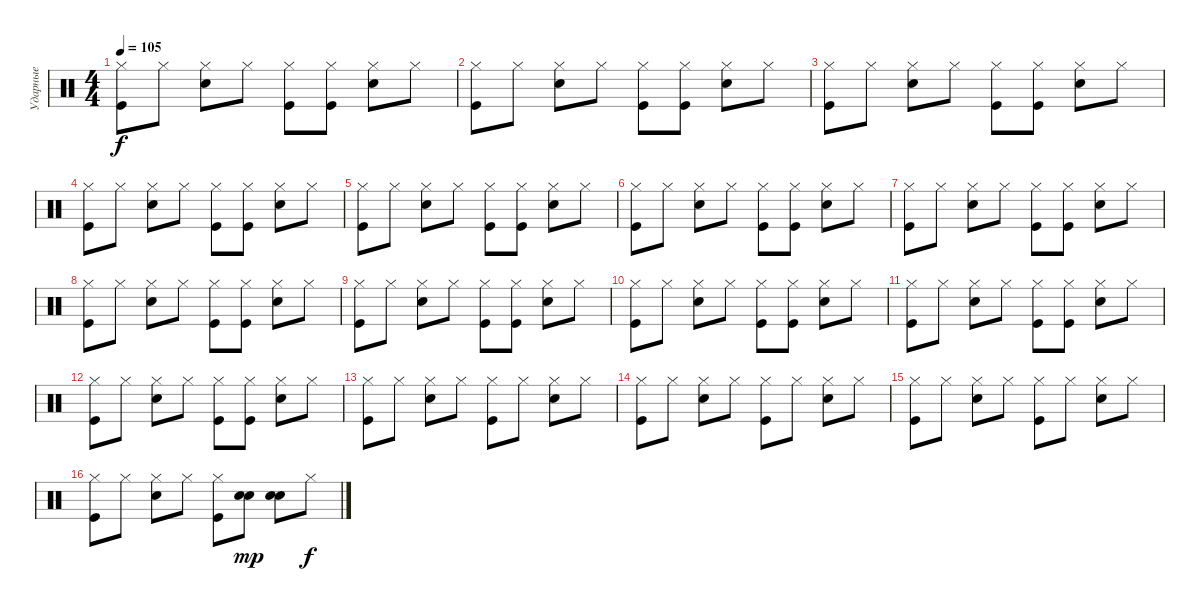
\track ("Ударные" "Ударные") {instrument percussion}
\staff {score}
\articulation defaults
\ts (4 4)
\tempo 105
\clef neutral
\ks c
("Hi-Hat (closed)" "Kick (hit)").8{dy f} "Hi-Hat (closed)".8 ("Hi-Hat (closed)" "Snare (hit) 2").8 "Hi-Hat (closed)".8 ("Hi-Hat (closed)" "Kick (hit)").8 ("Hi-Hat (closed)" "Kick (hit)").8 ("Hi-Hat (closed)" "Snare (hit) 2").8 "Hi-Hat (closed)".8 |
("Hi-Hat (closed)" "Kick (hit)").8 "Hi-Hat (closed)".8 ("Hi-Hat (closed)" "Snare (hit) 2").8 "Hi-Hat (closed)".8 ("Hi-Hat (closed)" "Kick (hit)").8 ("Hi-Hat (closed)" "Kick (hit)").8 ("Hi-Hat (closed)" "Snare (hit) 2").8 "Hi-Hat (closed)".8 |
("Hi-Hat (closed)" "Kick (hit)").8 "Hi-Hat (closed)".8 ("Hi-Hat (closed)" "Snare (hit) 2").8 "Hi-Hat (closed)".8 ("Hi-Hat (closed)" "Kick (hit)").8 ("Hi-Hat (closed)" "Kick (hit)").8 ("Hi-Hat (closed)" "Snare (hit) 2").8 "Hi-Hat (closed)".8 |
("Hi-Hat (closed)" "Kick (hit)").8 "Hi-Hat (closed)".8 ("Hi-Hat (closed)" "Snare (hit) 2").8 "Hi-Hat (closed)".8 ("Hi-Hat (closed)" "Kick (hit)").8 ("Hi-Hat (closed)" "Kick (hit)").8 ("Hi-Hat (closed)" "Snare (hit) 2").8 "Hi-Hat (closed)".8 |
("Hi-Hat (closed)" "Kick (hit)").8 "Hi-Hat (closed)".8 ("Hi-Hat (closed)" "Snare (hit) 2").8 "Hi-Hat (closed)".8 ("Hi-Hat (closed)" "Kick (hit)").8 ("Hi-Hat (closed)" "Kick (hit)").8 ("Hi-Hat (closed)" "Snare (hit) 2").8 "Hi-Hat (closed)".8 |
("Hi-Hat (closed)" "Kick (hit)").8 "Hi-Hat (closed)".8 ("Hi-Hat (closed)" "Snare (hit) 2").8 "Hi-Hat (closed)".8 ("Hi-Hat (closed)" "Kick (hit)").8 ("Hi-Hat (closed)" "Kick (hit)").8 ("Hi-Hat (closed)" "Snare (hit) 2").8 "Hi-Hat (closed)".8 |
("Hi-Hat (closed)" "Kick (hit)").8 "Hi-Hat (closed)".8 ("Hi-Hat (closed)" "Snare (hit) 2").8 "Hi-Hat (closed)".8 ("Hi-Hat (closed)" "Kick (hit)").8 ("Hi-Hat (closed)" "Kick (hit)").8 ("Hi-Hat (closed)" "Snare (hit) 2").8 "Hi-Hat (closed)".8 |
("Hi-Hat (closed)" "Kick (hit)").8 "Hi-Hat (closed)".8 ("Hi-Hat (closed)" "Snare (hit) 2").8 "Hi-Hat (closed)".8 ("Hi-Hat (closed)" "Kick (hit)").8 ("Hi-Hat (closed)" "Kick (hit)").8 ("Hi-Hat (closed)" "Snare (hit) 2").8 "Hi-Hat (closed)".8 |
("Hi-Hat (closed)" "Kick (hit)").8 "Hi-Hat (closed)".8 ("Hi-Hat (closed)" "Snare (hit) 2").8 "Hi-Hat (closed)".8 ("Hi-Hat (closed)" "Kick (hit)").8 ("Hi-Hat (closed)" "Kick (hit)").8 ("Hi-Hat (closed)" "Snare (hit) 2").8 "Hi-Hat (closed)".8 |
("Hi-Hat (closed)" "Kick (hit)").8 "Hi-Hat (closed)".8 ("Hi-Hat (closed)" "Snare (hit) 2").8 "Hi-Hat (closed)".8 ("Hi-Hat (closed)" "Kick (hit)").8 ("Hi-Hat (closed)" "Kick (hit)").8 ("Hi-Hat (closed)" "Snare (hit) 2").8 "Hi-Hat (closed)".8 |
("Hi-Hat (closed)" "Kick (hit)").8 "Hi-Hat (closed)".8 ("Hi-Hat (closed)" "Snare (hit) 2").8 "Hi-Hat (closed)".8 ("Hi-Hat (closed)" "Kick (hit)").8 ("Hi-Hat (closed)" "Kick (hit)").8 ("Hi-Hat (closed)" "Snare (hit) 2").8 "Hi-Hat (closed)".8 |
("Hi-Hat (closed)" "Kick (hit)").8 "Hi-Hat (closed)".8 ("Hi-Hat (closed)" "Snare (hit) 2").8 "Hi-Hat (closed)".8 ("Hi-Hat (closed)" "Kick (hit)").8 ("Hi-Hat (closed)" "Kick (hit)").8 ("Hi-Hat (closed)" "Snare (hit) 2").8 "Hi-Hat (closed)".8 |
("Hi-Hat (closed)" "Kick (hit)").8 "Hi-Hat (closed)".8 ("Hi-Hat (closed)" "Snare (hit) 2").8 "Hi-Hat (closed)".8 ("Hi-Hat (closed)" "Kick (hit)").8 "Hi-Hat (closed)".8 ("Hi-Hat (closed)" "Snare (hit) 2").8 "Hi-Hat (closed)".8 |
("Hi-Hat (closed)" "Kick (hit)").8 "Hi-Hat (closed)".8 ("Hi-Hat (closed)" "Snare (hit) 2").8 "Hi-Hat (closed)".8 ("Hi-Hat (closed)" "Kick (hit)").8 "Hi-Hat (closed)".8 ("Hi-Hat (closed)" "Snare (hit) 2").8 "Hi-Hat (closed)".8 |
("Hi-Hat (closed)" "Kick (hit)").8 "Hi-Hat (closed)".8 ("Hi-Hat (closed)" "Snare (hit) 2").8 "Hi-Hat (closed)".8 ("Hi-Hat (closed)" "Kick (hit)").8 "Hi-Hat (closed)".8 ("Hi-Hat (closed)" "Snare (hit) 2").8 "Hi-Hat (closed)".8 |
("Hi-Hat (closed)" "Kick (hit)").8 "Hi-Hat (closed)".8 ("Hi-Hat (closed)" "Snare (hit) 2").8 "Hi-Hat (closed)".8 ("Hi-Hat (closed)" "Kick (hit)").8 ("Hand Clap (hit)" "Snare (hit) 2").8{dy mp} ("Hand Clap (hit)" "Snare (hit) 2").8 "Hi-Hat (closed)".8{dy f}
